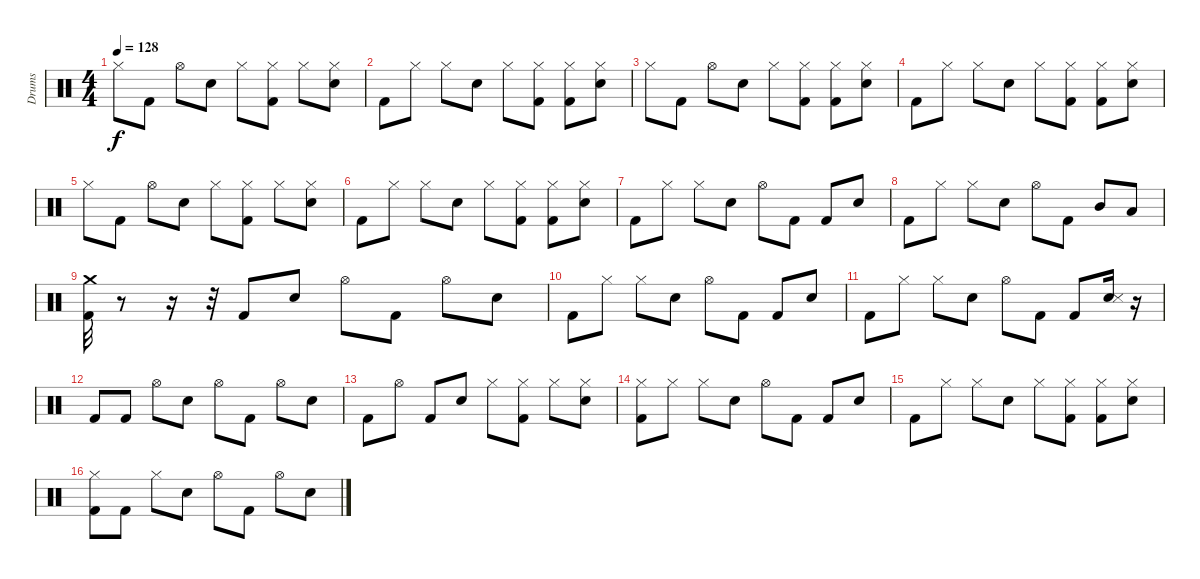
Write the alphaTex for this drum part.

\track ("Drums" "Drums") {instrument percussion}
\staff {score}
\articulation defaults
\ts (4 4)
\tempo 128
\clef neutral
\ks c "Hi-Hat (closed)".8{dy f} "Kick (hit) 2".8 "Hi-Hat (open)".8 "Snare (hit) 2".8 "Hi-Hat (closed)".8
("Hi-Hat (closed)" "Kick (hit) 2").8 "Hi-Hat (closed)".8 ("Hi-Hat (closed)" "Snare (hit) 2").8 |
"Kick (hit) 2".8 "Hi-Hat (closed)".8 "Hi-Hat (closed)".8 "Snare (hit) 2".8 "Hi-Hat (closed)".8 ("Hi-Hat (closed)" "Kick (hit) 2").8 ("Hi-Hat (closed)" "Kick (hit) 2").8 ("Hi-Hat (closed)" "Snare (hit) 2").8 |
"Hi-Hat (closed)".8 "Kick (hit) 2".8 "Hi-Hat (open)".8 "Snare (hit) 2".8 "Hi-Hat (closed)".8 ("Hi-Hat (closed)" "Kick (hit) 2").8 ("Hi-Hat (closed)" "Kick (hit) 2").8 ("Hi-Hat (closed)" "Snare (hit) 2").8 |
"Kick (hit) 2".8 "Hi-Hat (closed)".8 "Hi-Hat (closed)".8 "Snare (hit) 2".8 "Hi-Hat (closed)".8 ("Hi-Hat (closed)" "Kick (hit) 2").8 ("Hi-Hat (closed)" "Kick (hit) 2").8 ("Hi-Hat (closed)" "Snare (hit) 2").8 |
"Hi-Hat (closed)".8 "Kick (hit) 2".8 "Hi-Hat (open)".8 "Snare (hit) 2".8 "Hi-Hat (closed)".8 ("Hi-Hat (closed)" "Kick (hit) 2").8 "Hi-Hat (closed)".8 ("Hi-Hat (closed)" "Snare (hit) 2").8 |
"Kick (hit) 2".8 "Hi-Hat (closed)".8 "Hi-Hat (closed)".8 "Snare (hit) 2".8 "Hi-Hat (closed)".8 ("Hi-Hat (closed)" "Kick (hit) 2").8 ("Hi-Hat (closed)" "Kick (hit) 2").8 ("Hi-Hat (closed)" "Snare (hit) 2").8 |
"Kick (hit) 2".8 "Hi-Hat (closed)".8 "Hi-Hat (closed)".8 "Snare (hit) 2".8 "Hi-Hat (open)".8 "Kick (hit) 2".8 "Kick (hit) 2".8 "Snare (hit) 2".8 |
"Kick (hit) 2".8 "Hi-Hat (closed)".8 "Hi-Hat (closed)".8 "Snare (hit) 2".8 "Hi-Hat (open)".8 "Kick (hit) 2".8 "Mid Tom (hit)".8 "Low Tom (hit)".8 |
("Crash medium (hit)" "Kick (hit) 2").32 r.8 r.16 r.32 "Kick (hit) 2".8 "Snare (hit) 2".8 "Hi-Hat (open)".8 "Kick (hit) 2".8 "Hi-Hat (open)".8 "Snare (hit) 2".8 |
"Kick (hit) 2".8 "Hi-Hat (closed)".8 "Hi-Hat (closed)".8 "Snare (hit) 2".8 "Hi-Hat (open)".8 "Kick (hit) 2".8 "Kick (hit) 2".8 "Snare (hit) 2".8 |
"Kick (hit) 2".8 "Hi-Hat (closed)".8 "Hi-Hat (closed)".8 "Snare (hit) 2".8 "Hi-Hat (open)".8 "Kick (hit) 2".8 "Kick (hit) 2".8 ("Snare (hit) 2" "Snare (side stick) 3").16 r.16 |
"Kick (hit) 2".8 "Kick (hit) 2".8 "Hi-Hat (open)".8 "Snare (hit) 2".8 "Hi-Hat (open)".8 "Kick (hit) 2".8 "Hi-Hat (open)".8 "Snare (hit) 2".8 |
"Kick (hit) 2".8 "Hi-Hat (open)".8 "Kick (hit) 2".8 "Snare (hit) 2".8 "Hi-Hat (closed)".8 ("Hi-Hat (closed)" "Kick (hit) 2").8 "Hi-Hat (closed)".8 ("Hi-Hat (closed)" "Snare (hit) 2").8 |
("Hi-Hat (closed)" "Kick (hit) 2").8 "Hi-Hat (closed)".8 "Hi-Hat (closed)".8 "Snare (hit) 2".8 "Hi-Hat (open)".8 "Kick (hit) 2".8 "Kick (hit) 2".8 "Snare (hit) 2".8 |
"Kick (hit) 2".8 "Hi-Hat (closed)".8 "Hi-Hat (closed)".8 "Snare (hit) 2".8 "Hi-Hat (closed)".8 ("Hi-Hat (closed)" "Kick (hit) 2").8 ("Hi-Hat (closed)" "Kick (hit) 2").8 ("Hi-Hat (closed)" "Snare (hit) 2").8 |
("Hi-Hat (closed)" "Kick (hit) 2").8 "Kick (hit) 2".8 "Hi-Hat (closed)".8 "Snare (hit) 2".8 "Hi-Hat (open)".8 "Kick (hit) 2".8 "Hi-Hat (open)".8 "Snare (hit) 2".8
